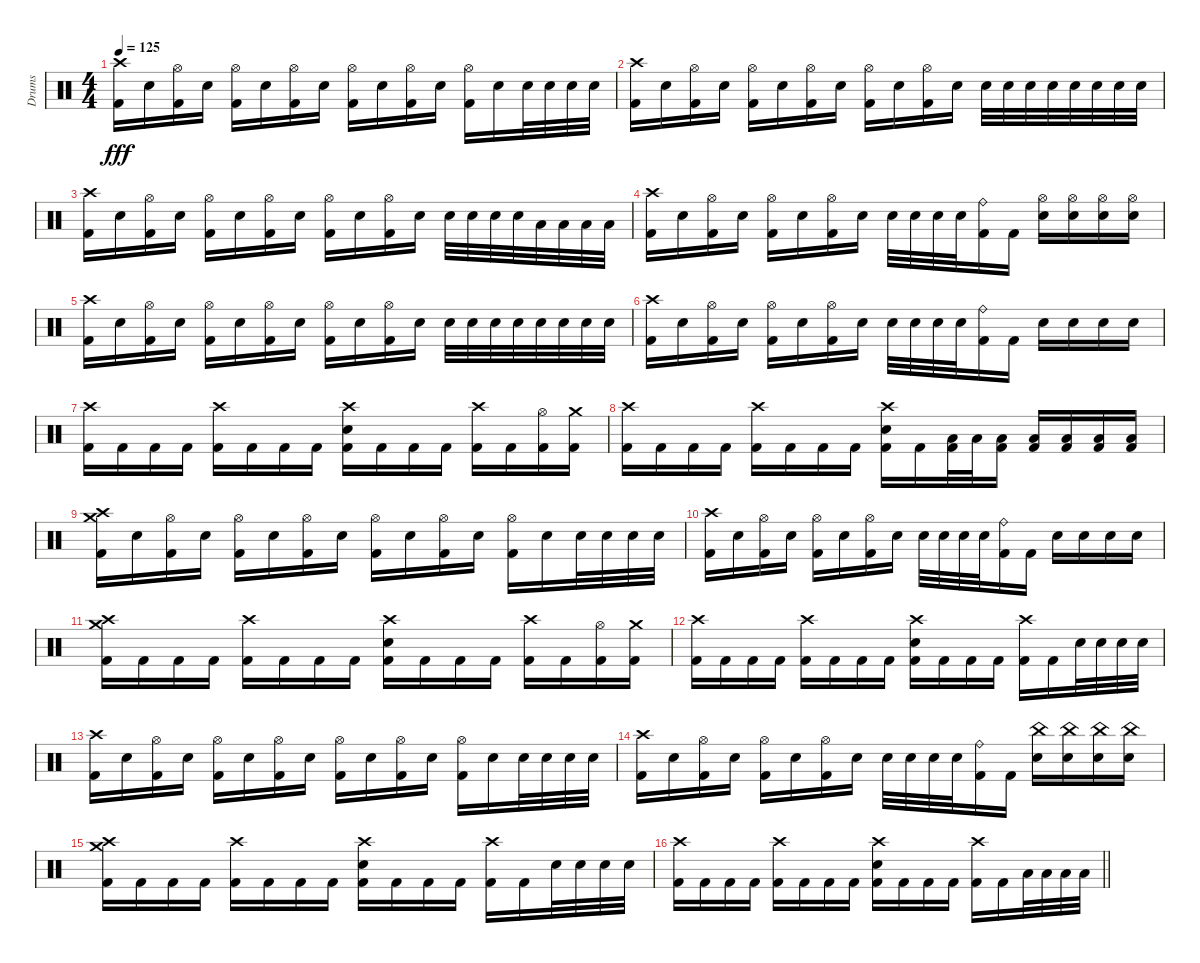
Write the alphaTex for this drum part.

\track ("Drums" "Drums") {instrument percussion}
\staff {score}
\articulation defaults
\ts (4 4)
\tempo 125
\clef neutral
\ks c
("Crash high (hit)" "Kick (hit) 2").16{dy fff} "Electric Snare (hit)".16 ("Hi-Hat (open)" "Kick (hit) 2").16 "Electric Snare (hit)".16 ("Hi-Hat (open)" "Kick (hit) 2").16 "Electric Snare (hit)".16 ("Hi-Hat (open)" "Kick (hit) 2").16 "Electric Snare (hit)".16 ("Hi-Hat (open)" "Kick (hit) 2").16 "Electric Snare (hit)".16 ("Hi-Hat (open)" "Kick (hit) 2").16 "Electric Snare (hit)".16 ("Hi-Hat (open)" "Kick (hit) 2").16 "Electric Snare (hit)".16 "Electric Snare (hit)".32 "Electric Snare (hit)".32 "Electric Snare (hit)".32 "Electric Snare (hit)".32 |
("Crash high (hit)" "Kick (hit) 2").16 "Electric Snare (hit)".16 ("Hi-Hat (open)" "Kick (hit) 2").16 "Electric Snare (hit)".16 ("Hi-Hat (open)" "Kick (hit) 2").16 "Electric Snare (hit)".16 ("Hi-Hat (open)" "Kick (hit) 2").16 "Electric Snare (hit)".16 ("Hi-Hat (open)" "Kick (hit) 2").16 "Electric Snare (hit)".16 ("Hi-Hat (open)" "Kick (hit) 2").16 "Electric Snare (hit)".16 "Electric Snare (hit)".32 "Electric Snare (hit)".32 "Electric Snare (hit)".32 "Electric Snare (hit)".32 "Electric Snare (hit)".32 "Electric Snare (hit)".32 "Electric Snare (hit)".32 "Electric Snare (hit)".32 |
("Crash high (hit)" "Kick (hit) 2").16 "Electric Snare (hit)".16 ("Hi-Hat (open)" "Kick (hit) 2").16 "Electric Snare (hit)".16 ("Hi-Hat (open)" "Kick (hit) 2").16 "Electric Snare (hit)".16 ("Hi-Hat (open)" "Kick (hit) 2").16 "Electric Snare (hit)".16 ("Hi-Hat (open)" "Kick (hit) 2").16 "Electric Snare (hit)".16 ("Hi-Hat (open)" "Kick (hit) 2").16 "Electric Snare (hit)".16 "Electric Snare (hit)".32 "Electric Snare (hit)".32 "Electric Snare (hit)".32 "Electric Snare (hit)".32 "Low Tom (hit)".32 "Low Tom (hit)".32 "Low Tom (hit)".32 "Low Tom (hit)".32 |
("Crash high (hit)" "Kick (hit) 2").16 "Electric Snare (hit)".16 ("Hi-Hat (open)" "Kick (hit) 2").16 "Electric Snare (hit)".16 ("Hi-Hat (open)" "Kick (hit) 2").16 "Electric Snare (hit)".16 ("Hi-Hat (open)" "Kick (hit) 2").16 "Electric Snare (hit)".16 "Electric Snare (hit)".32 "Electric Snare (hit)".32 "Electric Snare (hit)".32 "Electric Snare (hit)".32 ("Ride (bell)" "Kick (hit) 2").16 "Kick (hit) 2".16 ("Hi-Hat (open)" "Electric Snare (hit)").16 ("Hi-Hat (open)" "Electric Snare (hit)").16 ("Hi-Hat (open)" "Electric Snare (hit)").16 ("Hi-Hat (open)" "Electric Snare (hit)").16 |
("Crash high (hit)" "Kick (hit) 2").16 "Electric Snare (hit)".16 ("Hi-Hat (open)" "Kick (hit) 2").16 "Electric Snare (hit)".16 ("Hi-Hat (open)" "Kick (hit) 2").16 "Electric Snare (hit)".16 ("Hi-Hat (open)" "Kick (hit) 2").16 "Electric Snare (hit)".16 ("Hi-Hat (open)" "Kick (hit) 2").16 "Electric Snare (hit)".16 ("Hi-Hat (open)" "Kick (hit) 2").16 "Electric Snare (hit)".16 "Electric Snare (hit)".32 "Electric Snare (hit)".32 "Electric Snare (hit)".32 "Electric Snare (hit)".32 "Electric Snare (hit)".32 "Electric Snare (hit)".32 "Electric Snare (hit)".32 "Electric Snare (hit)".32 |
("Crash high (hit)" "Kick (hit) 2").16 "Electric Snare (hit)".16 ("Hi-Hat (open)" "Kick (hit) 2").16 "Electric Snare (hit)".16 ("Hi-Hat (open)" "Kick (hit) 2").16 "Electric Snare (hit)".16 ("Hi-Hat (open)" "Kick (hit) 2").16 "Electric Snare (hit)".16 "Electric Snare (hit)".32 "Electric Snare (hit)".32 "Electric Snare (hit)".32 "Electric Snare (hit)".32 ("Ride (bell)" "Kick (hit) 2").16 "Kick (hit) 2".16 "Electric Snare (hit)".16 "Electric Snare (hit)".16 "Electric Snare (hit)".16 "Electric Snare (hit)".16 |
("Crash high (hit)" "Kick (hit) 2").16 "Kick (hit) 2".16 "Kick (hit) 2".16 "Kick (hit) 2".16 ("Crash high (hit)" "Kick (hit) 2").16 "Kick (hit) 2".16 "Kick (hit) 2".16 "Kick (hit) 2".16 ("Crash high (hit)" "Electric Snare (hit)" "Kick (hit) 2").16 "Kick (hit) 2".16 "Kick (hit) 2".16 "Kick (hit) 2".16 ("Crash high (hit)" "Kick (hit) 2").16 "Kick (hit) 2".16 ("Hi-Hat (open)" "Kick (hit) 2").16 ("Crash medium (hit)" "Kick (hit) 2").16 |
("Crash high (hit)" "Kick (hit) 2").16 "Kick (hit) 2".16 "Kick (hit) 2".16 "Kick (hit) 2".16 ("Crash high (hit)" "Kick (hit) 2").16 "Kick (hit) 2".16 "Kick (hit) 2".16 "Kick (hit) 2".16 ("Crash high (hit)" "Electric Snare (hit)" "Kick (hit) 2").16 "Kick (hit) 2".16 ("Low Tom (hit)" "Kick (hit) 2").32 "Low Tom (hit)".32 ("Low Tom (hit)" "Kick (hit) 2").16 ("Low Tom (hit)" "Kick (hit) 2").16 ("Low Tom (hit)" "Kick (hit) 2").16 ("Low Tom (hit)" "Kick (hit) 2").16 ("Low Tom (hit)" "Kick (hit) 2").16 |
("Crash high (hit)" "Crash medium (hit)" "Kick (hit) 2").16 "Electric Snare (hit)".16 ("Hi-Hat (open)" "Kick (hit) 2").16 "Electric Snare (hit)".16 ("Hi-Hat (open)" "Kick (hit) 2").16 "Electric Snare (hit)".16 ("Hi-Hat (open)" "Kick (hit) 2").16 "Electric Snare (hit)".16 ("Hi-Hat (open)" "Kick (hit) 2").16 "Electric Snare (hit)".16 ("Hi-Hat (open)" "Kick (hit) 2").16 "Electric Snare (hit)".16 ("Hi-Hat (open)" "Kick (hit) 2").16 "Electric Snare (hit)".16 "Electric Snare (hit)".32 "Electric Snare (hit)".32 "Electric Snare (hit)".32 "Electric Snare (hit)".32 |
("Crash high (hit)" "Kick (hit) 2").16 "Electric Snare (hit)".16 ("Hi-Hat (open)" "Kick (hit) 2").16 "Electric Snare (hit)".16 ("Hi-Hat (open)" "Kick (hit) 2").16 "Electric Snare (hit)".16 ("Hi-Hat (open)" "Kick (hit) 2").16 "Electric Snare (hit)".16 "Electric Snare (hit)".32 "Electric Snare (hit)".32 "Electric Snare (hit)".32 "Electric Snare (hit)".32 ("Ride (bell)" "Kick (hit) 2").16 "Kick (hit) 2".16 "Electric Snare (hit)".16 "Electric Snare (hit)".16 "Electric Snare (hit)".16 "Electric Snare (hit)".16 |
("Crash high (hit)" "Crash medium (hit)" "Kick (hit) 2").16 "Kick (hit) 2".16 "Kick (hit) 2".16 "Kick (hit) 2".16 ("Crash high (hit)" "Kick (hit) 2").16 "Kick (hit) 2".16 "Kick (hit) 2".16 "Kick (hit) 2".16 ("Crash high (hit)" "Electric Snare (hit)" "Kick (hit) 2").16 "Kick (hit) 2".16 "Kick (hit) 2".16 "Kick (hit) 2".16 ("Crash high (hit)" "Kick (hit) 2").16 "Kick (hit) 2".16 ("Hi-Hat (open)" "Kick (hit) 2").16 ("Crash medium (hit)" "Kick (hit) 2").16 |
("Crash high (hit)" "Kick (hit) 2").16 "Kick (hit) 2".16 "Kick (hit) 2".16 "Kick (hit) 2".16 ("Crash high (hit)" "Kick (hit) 2").16 "Kick (hit) 2".16 "Kick (hit) 2".16 "Kick (hit) 2".16 ("Crash high (hit)" "Electric Snare (hit)" "Kick (hit) 2").16 "Kick (hit) 2".16 "Kick (hit) 2".16 "Kick (hit) 2".16 ("Crash high (hit)" "Kick (hit) 2").16 "Kick (hit) 2".16 "Electric Snare (hit)".32 "Electric Snare (hit)".32 "Electric Snare (hit)".32 "Electric Snare (hit)".32 |
("Crash high (hit)" "Kick (hit) 2").16 "Electric Snare (hit)".16 ("Hi-Hat (open)" "Kick (hit) 2").16 "Electric Snare (hit)".16 ("Hi-Hat (open)" "Kick (hit) 2").16 "Electric Snare (hit)".16 ("Hi-Hat (open)" "Kick (hit) 2").16 "Electric Snare (hit)".16 ("Hi-Hat (open)" "Kick (hit) 2").16 "Electric Snare (hit)".16 ("Hi-Hat (open)" "Kick (hit) 2").16 "Electric Snare (hit)".16 ("Hi-Hat (open)" "Kick (hit) 2").16 "Electric Snare (hit)".16 "Electric Snare (hit)".32 "Electric Snare (hit)".32 "Electric Snare (hit)".32 "Electric Snare (hit)".32 |
("Crash high (hit)" "Kick (hit) 2").16 "Electric Snare (hit)".16 ("Hi-Hat (open)" "Kick (hit) 2").16 "Electric Snare (hit)".16 ("Hi-Hat (open)" "Kick (hit) 2").16 "Electric Snare (hit)".16 ("Hi-Hat (open)" "Kick (hit) 2").16 "Electric Snare (hit)".16 "Electric Snare (hit)".32 "Electric Snare (hit)".32 "Electric Snare (hit)".32 "Electric Snare (hit)".32 ("Ride (bell)" "Kick (hit) 2").16 "Kick (hit) 2".16 ("China (hit)" "Electric Snare (hit)").16 ("China (hit)" "Electric Snare (hit)").16 ("China (hit)" "Electric Snare (hit)").16 ("China (hit)" "Electric Snare (hit)").16 |
("Crash high (hit)" "Crash medium (hit)" "Kick (hit) 2").16 "Kick (hit) 2".16 "Kick (hit) 2".16 "Kick (hit) 2".16 ("Crash high (hit)" "Kick (hit) 2").16 "Kick (hit) 2".16 "Kick (hit) 2".16 "Kick (hit) 2".16 ("Crash high (hit)" "Electric Snare (hit)" "Kick (hit) 2").16 "Kick (hit) 2".16 "Kick (hit) 2".16 "Kick (hit) 2".16 ("Crash high (hit)" "Kick (hit) 2").16 "Kick (hit) 2".16 "Electric Snare (hit)".32 "Electric Snare (hit)".32 "Electric Snare (hit)".32 "Electric Snare (hit)".32 |
\barLineRight lightlight
("Crash high (hit)" "Kick (hit) 2").16 "Kick (hit) 2".16 "Kick (hit) 2".16 "Kick (hit) 2".16 ("Crash high (hit)" "Kick (hit) 2").16 "Kick (hit) 2".16 "Kick (hit) 2".16 "Kick (hit) 2".16 ("Crash high (hit)" "Electric Snare (hit)" "Kick (hit) 2").16 "Kick (hit) 2".16 "Kick (hit) 2".16 "Kick (hit) 2".16 ("Crash high (hit)" "Kick (hit) 2").16 "Kick (hit) 2".16 "Low Tom (hit)".32 "Low Tom (hit)".32 "Low Tom (hit)".32 "Low Tom (hit)".32
